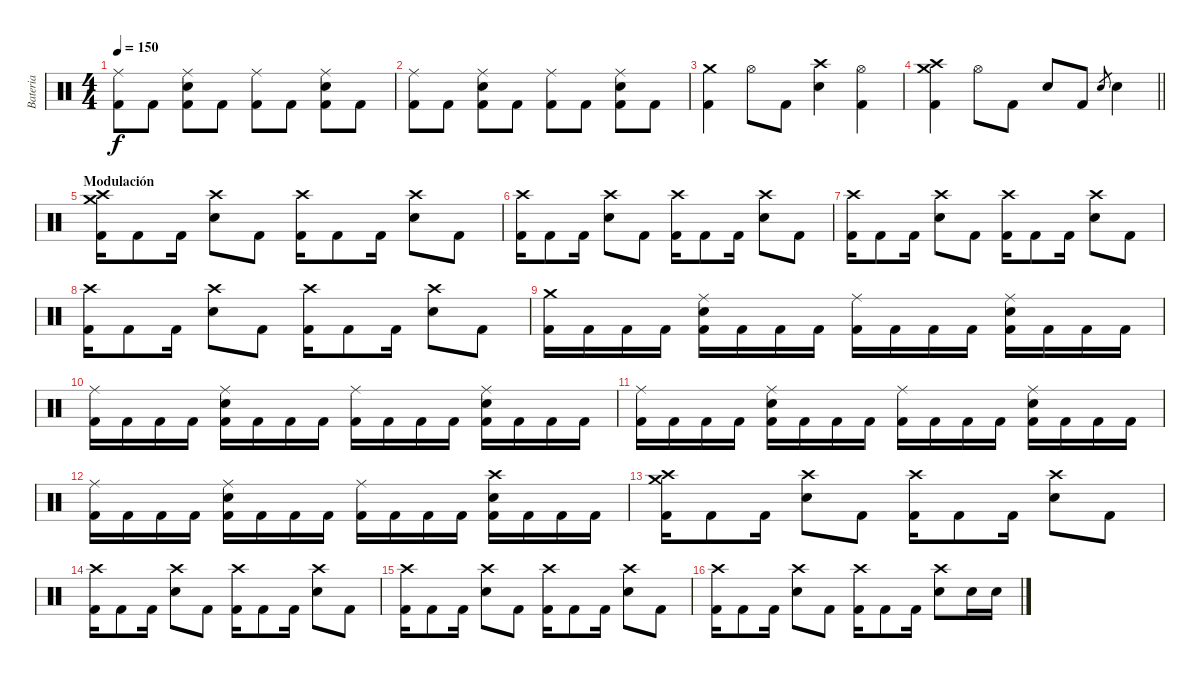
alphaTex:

\track ("Bateria" "Bateria") {instrument percussion}
\staff {score}
\articulation defaults
\ts (4 4)
\tempo 150
\clef neutral
\ks c
("Ride (middle)" "Kick (hit) 2").8{dy f} "Kick (hit) 2".8 ("Ride (middle)" "Snare (hit) 2" "Kick (hit) 2").8 "Kick (hit) 2".8 ("Ride (middle)" "Kick (hit) 2").8 "Kick (hit) 2".8 ("Ride (middle)" "Snare (hit) 2" "Kick (hit) 2").8 "Kick (hit) 2".8 |
("Ride (middle)" "Kick (hit) 2").8 "Kick (hit) 2".8 ("Ride (middle)" "Snare (hit) 2" "Kick (hit) 2").8 "Kick (hit) 2".8 ("Ride (middle)" "Kick (hit) 2").8 "Kick (hit) 2".8 ("Ride (middle)" "Snare (hit) 2" "Kick (hit) 2").8 "Kick (hit) 2".8 |
("Crash medium (hit)" "Kick (hit) 2").4 "Hi-Hat (open)".8 "Kick (hit) 2".8 ("Crash high (hit)" "Snare (hit) 2").4 ("Hi-Hat (open)" "Kick (hit) 2").4 |
\barLineRight lightlight
("Crash high (hit)" "Crash medium (hit)" "Kick (hit) 2").4 "Hi-Hat (open)".8 "Kick (hit) 2".8 "Snare (hit) 2".8 "Kick (hit) 2".8 "Snare (hit) 2".8{gr} "Snare (hit) 2".4 |
\section ("" "Modulación")
("Crash medium (hit)" "Crash high (hit)" "Kick (hit) 2").16 "Kick (hit) 2".8 "Kick (hit) 2".16 ("Crash high (hit)" "Snare (hit) 2").8 "Kick (hit) 2".8 ("Crash high (hit)" "Kick (hit) 2").16 "Kick (hit) 2".8 "Kick (hit) 2".16 ("Crash high (hit)" "Snare (hit) 2").8 "Kick (hit) 2".8 |
("Crash high (hit)" "Kick (hit) 2").16 "Kick (hit) 2".8 "Kick (hit) 2".16 ("Crash high (hit)" "Snare (hit) 2").8 "Kick (hit) 2".8 ("Crash high (hit)" "Kick (hit) 2").16 "Kick (hit) 2".8 "Kick (hit) 2".16 ("Crash high (hit)" "Snare (hit) 2").8 "Kick (hit) 2".8 |
("Crash high (hit)" "Kick (hit) 2").16 "Kick (hit) 2".8 "Kick (hit) 2".16 ("Crash high (hit)" "Snare (hit) 2").8 "Kick (hit) 2".8 ("Crash high (hit)" "Kick (hit) 2").16 "Kick (hit) 2".8 "Kick (hit) 2".16 ("Crash high (hit)" "Snare (hit) 2").8 "Kick (hit) 2".8 |
("Crash high (hit)" "Kick (hit) 2").16 "Kick (hit) 2".8 "Kick (hit) 2".16 ("Crash high (hit)" "Snare (hit) 2").8 "Kick (hit) 2".8 ("Crash high (hit)" "Kick (hit) 2").16 "Kick (hit) 2".8 "Kick (hit) 2".16 ("Crash high (hit)" "Snare (hit) 2").8 "Kick (hit) 2".8 |
("Crash medium (hit)" "Kick (hit) 2").16 "Kick (hit) 2".16 "Kick (hit) 2".16 "Kick (hit) 2".16 ("Ride (middle)" "Snare (hit) 2" "Kick (hit) 2").16 "Kick (hit) 2".16 "Kick (hit) 2".16 "Kick (hit) 2".16 ("Ride (middle)" "Kick (hit) 2").16 "Kick (hit) 2".16 "Kick (hit) 2".16 "Kick (hit) 2".16 ("Ride (middle)" "Snare (hit) 2" "Kick (hit) 2").16 "Kick (hit) 2".16 "Kick (hit) 2".16 "Kick (hit) 2".16 |
("Ride (middle)" "Kick (hit) 2").16 "Kick (hit) 2".16 "Kick (hit) 2".16 "Kick (hit) 2".16 ("Ride (middle)" "Snare (hit) 2" "Kick (hit) 2").16 "Kick (hit) 2".16 "Kick (hit) 2".16 "Kick (hit) 2".16 ("Ride (middle)" "Kick (hit) 2").16 "Kick (hit) 2".16 "Kick (hit) 2".16 "Kick (hit) 2".16 ("Ride (middle)" "Snare (hit) 2" "Kick (hit) 2").16 "Kick (hit) 2".16 "Kick (hit) 2".16 "Kick (hit) 2".16 |
("Ride (middle)" "Kick (hit) 2").16 "Kick (hit) 2".16 "Kick (hit) 2".16 "Kick (hit) 2".16 ("Ride (middle)" "Snare (hit) 2" "Kick (hit) 2").16 "Kick (hit) 2".16 "Kick (hit) 2".16 "Kick (hit) 2".16 ("Ride (middle)" "Kick (hit) 2").16 "Kick (hit) 2".16 "Kick (hit) 2".16 "Kick (hit) 2".16 ("Ride (middle)" "Snare (hit) 2" "Kick (hit) 2").16 "Kick (hit) 2".16 "Kick (hit) 2".16 "Kick (hit) 2".16 |
("Ride (middle)" "Kick (hit) 2").16 "Kick (hit) 2".16 "Kick (hit) 2".16 "Kick (hit) 2".16 ("Ride (middle)" "Snare (hit) 2" "Kick (hit) 2").16 "Kick (hit) 2".16 "Kick (hit) 2".16 "Kick (hit) 2".16 ("Ride (middle)" "Kick (hit) 2").16 "Kick (hit) 2".16 "Kick (hit) 2".16 "Kick (hit) 2".16 ("Crash high (hit)" "Snare (hit) 2" "Kick (hit) 2").16 "Kick (hit) 2".16 "Kick (hit) 2".16 "Kick (hit) 2".16 |
("Crash medium (hit)" "Crash high (hit)" "Kick (hit) 2").16 "Kick (hit) 2".8 "Kick (hit) 2".16 ("Crash high (hit)" "Snare (hit) 2").8 "Kick (hit) 2".8 ("Crash high (hit)" "Kick (hit) 2").16 "Kick (hit) 2".8 "Kick (hit) 2".16 ("Crash high (hit)" "Snare (hit) 2").8 "Kick (hit) 2".8 |
("Crash high (hit)" "Kick (hit) 2").16 "Kick (hit) 2".8 "Kick (hit) 2".16 ("Crash high (hit)" "Snare (hit) 2").8 "Kick (hit) 2".8 ("Crash high (hit)" "Kick (hit) 2").16 "Kick (hit) 2".8 "Kick (hit) 2".16 ("Crash high (hit)" "Snare (hit) 2").8 "Kick (hit) 2".8 |
("Crash high (hit)" "Kick (hit) 2").16 "Kick (hit) 2".8 "Kick (hit) 2".16 ("Crash high (hit)" "Snare (hit) 2").8 "Kick (hit) 2".8 ("Crash high (hit)" "Kick (hit) 2").16 "Kick (hit) 2".8 "Kick (hit) 2".16 ("Crash high (hit)" "Snare (hit) 2").8 "Kick (hit) 2".8 |
("Crash high (hit)" "Kick (hit) 2").16 "Kick (hit) 2".8 "Kick (hit) 2".16 ("Crash high (hit)" "Snare (hit) 2").8 "Kick (hit) 2".8 ("Crash high (hit)" "Kick (hit) 2").16 "Kick (hit) 2".8 "Kick (hit) 2".16 ("Crash high (hit)" "Snare (hit) 2").8 "Snare (hit) 2".16 "Snare (hit) 2".16
